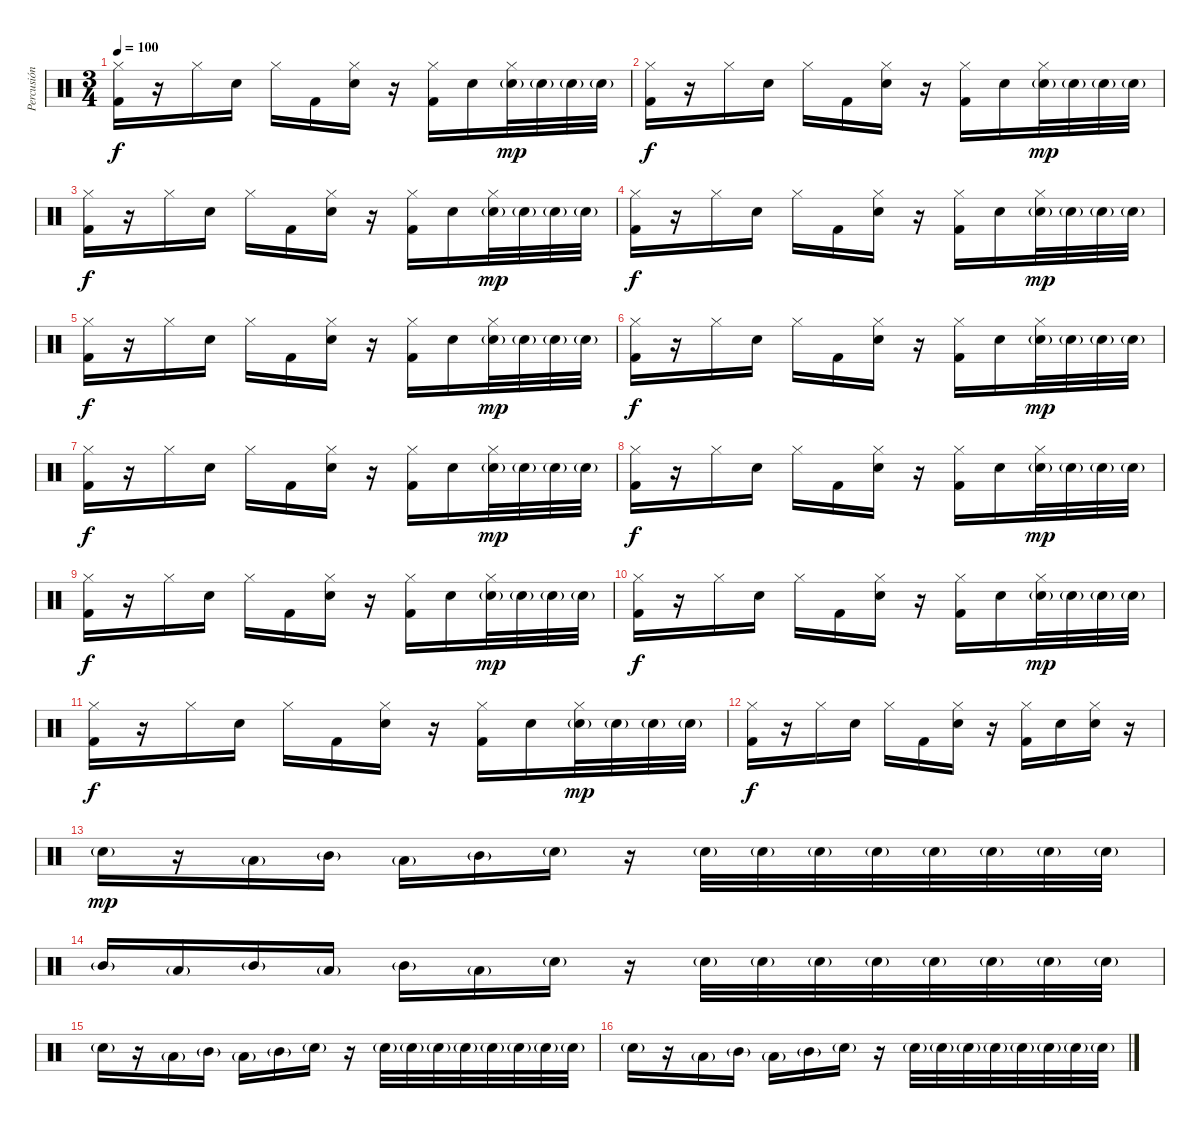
\track ("Percusión" "Percusión") {instrument percussion}
\staff {score}
\articulation defaults
\ts (3 4)
\tempo 100
\clef neutral
\ks c
("Hi-Hat (closed)" "Kick (hit) 2").16{dy f} r.16 "Hi-Hat (closed)".16 "Snare (hit) 2".16 "Hi-Hat (closed)".16 "Kick (hit) 2".16 ("Hi-Hat (closed)" "Snare (hit) 2").16 r.16 ("Hi-Hat (closed)" "Kick (hit) 2").16 "Snare (hit) 2".16 ("Hi-Hat (closed)" "Snare (hit) 2"{g}).32{dy mp} "Snare (hit) 2"{g}.32 "Snare (hit) 2"{g}.32 "Snare (hit) 2"{g}.32 |
("Hi-Hat (closed)" "Kick (hit) 2").16{dy f} r.16 "Hi-Hat (closed)".16 "Snare (hit) 2".16 "Hi-Hat (closed)".16 "Kick (hit) 2".16 ("Hi-Hat (closed)" "Snare (hit) 2").16 r.16 ("Hi-Hat (closed)" "Kick (hit) 2").16 "Snare (hit) 2".16 ("Hi-Hat (closed)" "Snare (hit) 2"{g}).32{dy mp} "Snare (hit) 2"{g}.32 "Snare (hit) 2"{g}.32 "Snare (hit) 2"{g}.32 |
("Hi-Hat (closed)" "Kick (hit) 2").16{dy f} r.16 "Hi-Hat (closed)".16 "Snare (hit) 2".16 "Hi-Hat (closed)".16 "Kick (hit) 2".16 ("Hi-Hat (closed)" "Snare (hit) 2").16 r.16 ("Hi-Hat (closed)" "Kick (hit) 2").16 "Snare (hit) 2".16 ("Hi-Hat (closed)" "Snare (hit) 2"{g}).32{dy mp} "Snare (hit) 2"{g}.32 "Snare (hit) 2"{g}.32 "Snare (hit) 2"{g}.32 |
("Hi-Hat (closed)" "Kick (hit) 2").16{dy f} r.16 "Hi-Hat (closed)".16 "Snare (hit) 2".16 "Hi-Hat (closed)".16 "Kick (hit) 2".16 ("Hi-Hat (closed)" "Snare (hit) 2").16 r.16 ("Hi-Hat (closed)" "Kick (hit) 2").16 "Snare (hit) 2".16 ("Hi-Hat (closed)" "Snare (hit) 2"{g}).32{dy mp} "Snare (hit) 2"{g}.32 "Snare (hit) 2"{g}.32 "Snare (hit) 2"{g}.32 |
("Hi-Hat (closed)" "Kick (hit) 2").16{dy f} r.16 "Hi-Hat (closed)".16 "Snare (hit) 2".16 "Hi-Hat (closed)".16 "Kick (hit) 2".16 ("Hi-Hat (closed)" "Snare (hit) 2").16 r.16 ("Hi-Hat (closed)" "Kick (hit) 2").16 "Snare (hit) 2".16 ("Hi-Hat (closed)" "Snare (hit) 2"{g}).32{dy mp} "Snare (hit) 2"{g}.32 "Snare (hit) 2"{g}.32 "Snare (hit) 2"{g}.32 |
("Hi-Hat (closed)" "Kick (hit) 2").16{dy f} r.16 "Hi-Hat (closed)".16 "Snare (hit) 2".16 "Hi-Hat (closed)".16 "Kick (hit) 2".16 ("Hi-Hat (closed)" "Snare (hit) 2").16 r.16 ("Hi-Hat (closed)" "Kick (hit) 2").16 "Snare (hit) 2".16 ("Hi-Hat (closed)" "Snare (hit) 2"{g}).32{dy mp} "Snare (hit) 2"{g}.32 "Snare (hit) 2"{g}.32 "Snare (hit) 2"{g}.32 |
("Hi-Hat (closed)" "Kick (hit) 2").16{dy f} r.16 "Hi-Hat (closed)".16 "Snare (hit) 2".16 "Hi-Hat (closed)".16 "Kick (hit) 2".16 ("Hi-Hat (closed)" "Snare (hit) 2").16 r.16 ("Hi-Hat (closed)" "Kick (hit) 2").16 "Snare (hit) 2".16 ("Hi-Hat (closed)" "Snare (hit) 2"{g}).32{dy mp} "Snare (hit) 2"{g}.32 "Snare (hit) 2"{g}.32 "Snare (hit) 2"{g}.32 |
("Hi-Hat (closed)" "Kick (hit) 2").16{dy f} r.16 "Hi-Hat (closed)".16 "Snare (hit) 2".16 "Hi-Hat (closed)".16 "Kick (hit) 2".16 ("Hi-Hat (closed)" "Snare (hit) 2").16 r.16 ("Hi-Hat (closed)" "Kick (hit) 2").16 "Snare (hit) 2".16 ("Hi-Hat (closed)" "Snare (hit) 2"{g}).32{dy mp} "Snare (hit) 2"{g}.32 "Snare (hit) 2"{g}.32 "Snare (hit) 2"{g}.32 |
("Hi-Hat (closed)" "Kick (hit) 2").16{dy f} r.16 "Hi-Hat (closed)".16 "Snare (hit) 2".16 "Hi-Hat (closed)".16 "Kick (hit) 2".16 ("Hi-Hat (closed)" "Snare (hit) 2").16 r.16 ("Hi-Hat (closed)" "Kick (hit) 2").16 "Snare (hit) 2".16 ("Hi-Hat (closed)" "Snare (hit) 2"{g}).32{dy mp} "Snare (hit) 2"{g}.32 "Snare (hit) 2"{g}.32 "Snare (hit) 2"{g}.32 |
("Hi-Hat (closed)" "Kick (hit) 2").16{dy f} r.16 "Hi-Hat (closed)".16 "Snare (hit) 2".16 "Hi-Hat (closed)".16 "Kick (hit) 2".16 ("Hi-Hat (closed)" "Snare (hit) 2").16 r.16 ("Hi-Hat (closed)" "Kick (hit) 2").16 "Snare (hit) 2".16 ("Hi-Hat (closed)" "Snare (hit) 2"{g}).32{dy mp} "Snare (hit) 2"{g}.32 "Snare (hit) 2"{g}.32 "Snare (hit) 2"{g}.32 |
("Hi-Hat (closed)" "Kick (hit) 2").16{dy f} r.16 "Hi-Hat (closed)".16 "Snare (hit) 2".16 "Hi-Hat (closed)".16 "Kick (hit) 2".16 ("Hi-Hat (closed)" "Snare (hit) 2").16 r.16 ("Hi-Hat (closed)" "Kick (hit) 2").16 "Snare (hit) 2".16 ("Hi-Hat (closed)" "Snare (hit) 2"{g}).32{dy mp} "Snare (hit) 2"{g}.32 "Snare (hit) 2"{g}.32 "Snare (hit) 2"{g}.32 |
("Hi-Hat (closed)" "Kick (hit) 2").16{dy f} r.16 "Hi-Hat (closed)".16 "Snare (hit) 2".16 "Hi-Hat (closed)".16 "Kick (hit) 2".16 ("Hi-Hat (closed)" "Snare (hit) 2").16 r.16 ("Hi-Hat (closed)" "Kick (hit) 2").16 "Snare (hit) 2".16 ("Hi-Hat (closed)" "Snare (hit) 2").16 r.16 |
"Snare (hit) 2"{g}.16{dy mp} r.16 "Low Tom (hit)"{g}.16 "Mid Tom (hit)"{g}.16 "Low Tom (hit)"{g}.16 "Mid Tom (hit)"{g}.16 "Snare (hit) 2"{g}.16 r.16 "Snare (hit) 2"{g}.32 "Snare (hit) 2"{g}.32 "Snare (hit) 2"{g}.32 "Snare (hit) 2"{g}.32 "Snare (hit) 2"{g}.32 "Snare (hit) 2"{g}.32 "Snare (hit) 2"{g}.32 "Snare (hit) 2"{g}.32 |
"Mid Tom (hit)"{g}.16 "Low Tom (hit)"{g}.16 "Mid Tom (hit)"{g}.16 "Low Tom (hit)"{g}.16 "Mid Tom (hit)"{g}.16 "Low Tom (hit)"{g}.16 "Snare (hit) 2"{g}.16 r.16 "Snare (hit) 2"{g}.32 "Snare (hit) 2"{g}.32 "Snare (hit) 2"{g}.32 "Snare (hit) 2"{g}.32 "Snare (hit) 2"{g}.32 "Snare (hit) 2"{g}.32 "Snare (hit) 2"{g}.32 "Snare (hit) 2"{g}.32 |
"Snare (hit) 2"{g}.16 r.16 "Low Tom (hit)"{g}.16 "Mid Tom (hit)"{g}.16 "Low Tom (hit)"{g}.16 "Mid Tom (hit)"{g}.16 "Snare (hit) 2"{g}.16 r.16 "Snare (hit) 2"{g}.32 "Snare (hit) 2"{g}.32 "Snare (hit) 2"{g}.32 "Snare (hit) 2"{g}.32 "Snare (hit) 2"{g}.32 "Snare (hit) 2"{g}.32 "Snare (hit) 2"{g}.32 "Snare (hit) 2"{g}.32 |
"Snare (hit) 2"{g}.16 r.16 "Low Tom (hit)"{g}.16 "Mid Tom (hit)"{g}.16 "Low Tom (hit)"{g}.16 "Mid Tom (hit)"{g}.16 "Snare (hit) 2"{g}.16 r.16 "Snare (hit) 2"{g}.32 "Snare (hit) 2"{g}.32 "Snare (hit) 2"{g}.32 "Snare (hit) 2"{g}.32 "Snare (hit) 2"{g}.32 "Snare (hit) 2"{g}.32 "Snare (hit) 2"{g}.32 "Snare (hit) 2"{g}.32
